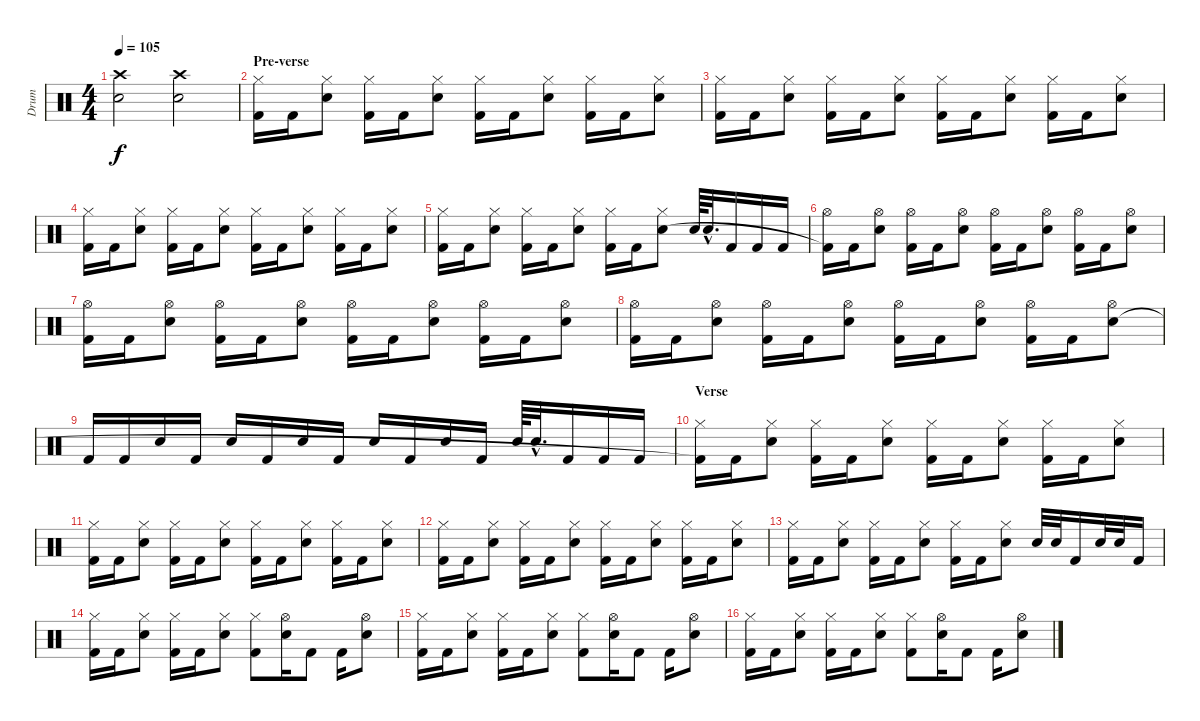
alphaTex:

\track ("Drum" "Drum") {instrument percussion}
\staff {score}
\articulation defaults
\ts (4 4)
\tempo 105
\clef neutral
\ks c
("Crash high (hit)" "Electric Snare (hit)").2{dy f} ("Crash high (hit)" "Electric Snare (hit)").2 |
\section ("" "Pre-verse")
("Hi-Hat (closed)" "Kick (hit) 2").16 "Kick (hit) 2".16 ("Hi-Hat (closed)" "Electric Snare (hit)").8 ("Hi-Hat (closed)" "Kick (hit) 2").16 "Kick (hit) 2".16 ("Hi-Hat (closed)" "Electric Snare (hit)").8 ("Hi-Hat (closed)" "Kick (hit) 2").16 "Kick (hit) 2".16 ("Hi-Hat (closed)" "Electric Snare (hit)").8 ("Hi-Hat (closed)" "Kick (hit) 2").16 "Kick (hit) 2".16 ("Hi-Hat (closed)" "Electric Snare (hit)").8 |
("Hi-Hat (closed)" "Kick (hit) 2").16 "Kick (hit) 2".16 ("Hi-Hat (closed)" "Electric Snare (hit)").8 ("Hi-Hat (closed)" "Kick (hit) 2").16 "Kick (hit) 2".16 ("Hi-Hat (closed)" "Electric Snare (hit)").8 ("Hi-Hat (closed)" "Kick (hit) 2").16 "Kick (hit) 2".16 ("Hi-Hat (closed)" "Electric Snare (hit)").8 ("Hi-Hat (closed)" "Kick (hit) 2").16 "Kick (hit) 2".16 ("Hi-Hat (closed)" "Electric Snare (hit)").8 |
("Hi-Hat (closed)" "Kick (hit) 2").16 "Kick (hit) 2".16 ("Hi-Hat (closed)" "Electric Snare (hit)").8 ("Hi-Hat (closed)" "Kick (hit) 2").16 "Kick (hit) 2".16 ("Hi-Hat (closed)" "Electric Snare (hit)").8 ("Hi-Hat (closed)" "Kick (hit) 2").16 "Kick (hit) 2".16 ("Hi-Hat (closed)" "Electric Snare (hit)").8 ("Hi-Hat (closed)" "Kick (hit) 2").16 "Kick (hit) 2".16 ("Hi-Hat (closed)" "Electric Snare (hit)").8 |
("Hi-Hat (closed)" "Kick (hit) 2").16 "Kick (hit) 2".16 ("Hi-Hat (closed)" "Electric Snare (hit)").8 ("Hi-Hat (closed)" "Kick (hit) 2").16 "Kick (hit) 2".16 ("Hi-Hat (closed)" "Electric Snare (hit)").8 ("Hi-Hat (closed)" "Kick (hit) 2").16 "Kick (hit) 2".16 ("Hi-Hat (closed)" "Electric Snare (hit)").8 "Electric Snare (hit)".64 "Electric Snare (hit)"{hac}.32{d} "Kick (hit) 2".16 "Kick (hit) 2".16 "Kick (hit) 2".16 |
("Hi-Hat (open)" "Kick (hit) 2"{t}).16 "Kick (hit) 2".16 ("Hi-Hat (open)" "Electric Snare (hit)").8 ("Hi-Hat (open)" "Kick (hit) 2").16 "Kick (hit) 2".16 ("Hi-Hat (open)" "Electric Snare (hit)").8 ("Hi-Hat (open)" "Kick (hit) 2").16 "Kick (hit) 2".16 ("Hi-Hat (open)" "Electric Snare (hit)").8 ("Hi-Hat (open)" "Kick (hit) 2").16 "Kick (hit) 2".16 ("Hi-Hat (open)" "Electric Snare (hit)").8 |
("Hi-Hat (open)" "Kick (hit) 2").16 "Kick (hit) 2".16 ("Hi-Hat (open)" "Electric Snare (hit)").8 ("Hi-Hat (open)" "Kick (hit) 2").16 "Kick (hit) 2".16 ("Hi-Hat (open)" "Electric Snare (hit)").8 ("Hi-Hat (open)" "Kick (hit) 2").16 "Kick (hit) 2".16 ("Hi-Hat (open)" "Electric Snare (hit)").8 ("Hi-Hat (open)" "Kick (hit) 2").16 "Kick (hit) 2".16 ("Hi-Hat (open)" "Electric Snare (hit)").8 |
("Hi-Hat (open)" "Kick (hit) 2").16 "Kick (hit) 2".16 ("Hi-Hat (open)" "Electric Snare (hit)").8 ("Hi-Hat (open)" "Kick (hit) 2").16 "Kick (hit) 2".16 ("Hi-Hat (open)" "Electric Snare (hit)").8 ("Hi-Hat (open)" "Kick (hit) 2").16 "Kick (hit) 2".16 ("Hi-Hat (open)" "Electric Snare (hit)").8 ("Hi-Hat (open)" "Kick (hit) 2").16 "Kick (hit) 2".16 ("Hi-Hat (open)" "Electric Snare (hit)").8 |
"Kick (hit) 2".16 "Kick (hit) 2".16 "Electric Snare (hit)".16 "Kick (hit) 2".16 "Electric Snare (hit)".16 "Kick (hit) 2".16 "Electric Snare (hit)".16 "Kick (hit) 2".16 "Electric Snare (hit)".16 "Kick (hit) 2".16 "Electric Snare (hit)".16 "Kick (hit) 2".16 "Electric Snare (hit)".64 "Electric Snare (hit)"{hac}.32{d} "Kick (hit) 2".16 "Kick (hit) 2".16 "Kick (hit) 2".16 |
\section ("" "Verse")
("Hi-Hat (closed)" "Kick (hit) 2"{t}).16 "Kick (hit) 2".16 ("Hi-Hat (closed)" "Electric Snare (hit)").8 ("Hi-Hat (closed)" "Kick (hit) 2").16 "Kick (hit) 2".16 ("Hi-Hat (closed)" "Electric Snare (hit)").8 ("Hi-Hat (closed)" "Kick (hit) 2").16 "Kick (hit) 2".16 ("Hi-Hat (closed)" "Electric Snare (hit)").8 ("Hi-Hat (closed)" "Kick (hit) 2").16 "Kick (hit) 2".16 ("Hi-Hat (closed)" "Electric Snare (hit)").8 |
("Hi-Hat (closed)" "Kick (hit) 2").16 "Kick (hit) 2".16 ("Hi-Hat (closed)" "Electric Snare (hit)").8 ("Hi-Hat (closed)" "Kick (hit) 2").16 "Kick (hit) 2".16 ("Hi-Hat (closed)" "Electric Snare (hit)").8 ("Hi-Hat (closed)" "Kick (hit) 2").16 "Kick (hit) 2".16 ("Hi-Hat (closed)" "Electric Snare (hit)").8 ("Hi-Hat (closed)" "Kick (hit) 2").16 "Kick (hit) 2".16 ("Hi-Hat (closed)" "Electric Snare (hit)").8 |
("Hi-Hat (closed)" "Kick (hit) 2").16 "Kick (hit) 2".16 ("Hi-Hat (closed)" "Electric Snare (hit)").8 ("Hi-Hat (closed)" "Kick (hit) 2").16 "Kick (hit) 2".16 ("Hi-Hat (closed)" "Electric Snare (hit)").8 ("Hi-Hat (closed)" "Kick (hit) 2").16 "Kick (hit) 2".16 ("Hi-Hat (closed)" "Electric Snare (hit)").8 ("Hi-Hat (closed)" "Kick (hit) 2").16 "Kick (hit) 2".16 ("Hi-Hat (closed)" "Electric Snare (hit)").8 |
("Hi-Hat (closed)" "Kick (hit) 2").16 "Kick (hit) 2".16 ("Hi-Hat (closed)" "Electric Snare (hit)").8 ("Hi-Hat (closed)" "Kick (hit) 2").16 "Kick (hit) 2".16 ("Hi-Hat (closed)" "Electric Snare (hit)").8 ("Hi-Hat (closed)" "Kick (hit) 2").16 "Kick (hit) 2".16 ("Hi-Hat (closed)" "Electric Snare (hit)").8 "Electric Snare (hit)".32 "Electric Snare (hit)".32 "Kick (hit) 2".16 "Electric Snare (hit)".32 "Electric Snare (hit)".32 "Kick (hit) 2".16 |
("Hi-Hat (closed)" "Kick (hit) 2").16 "Kick (hit) 2".16 ("Hi-Hat (closed)" "Electric Snare (hit)").8 ("Hi-Hat (closed)" "Kick (hit) 2").16 "Kick (hit) 2".16 ("Hi-Hat (closed)" "Electric Snare (hit)").8 ("Hi-Hat (closed)" "Kick (hit) 2").8 ("Hi-Hat (open)" "Electric Snare (hit)").16 "Kick (hit) 2".8 "Kick (hit) 2".16 ("Hi-Hat (open)" "Electric Snare (hit)").8 |
("Hi-Hat (closed)" "Kick (hit) 2").16 "Kick (hit) 2".16 ("Hi-Hat (closed)" "Electric Snare (hit)").8 ("Hi-Hat (closed)" "Kick (hit) 2").16 "Kick (hit) 2".16 ("Hi-Hat (closed)" "Electric Snare (hit)").8 ("Hi-Hat (closed)" "Kick (hit) 2").8 ("Hi-Hat (open)" "Electric Snare (hit)").16 "Kick (hit) 2".8 "Kick (hit) 2".16 ("Hi-Hat (open)" "Electric Snare (hit)").8 |
("Hi-Hat (closed)" "Kick (hit) 2").16 "Kick (hit) 2".16 ("Hi-Hat (closed)" "Electric Snare (hit)").8 ("Hi-Hat (closed)" "Kick (hit) 2").16 "Kick (hit) 2".16 ("Hi-Hat (closed)" "Electric Snare (hit)").8 ("Hi-Hat (closed)" "Kick (hit) 2").8 ("Hi-Hat (open)" "Electric Snare (hit)").16 "Kick (hit) 2".8 "Kick (hit) 2".16 ("Hi-Hat (open)" "Electric Snare (hit)").8
